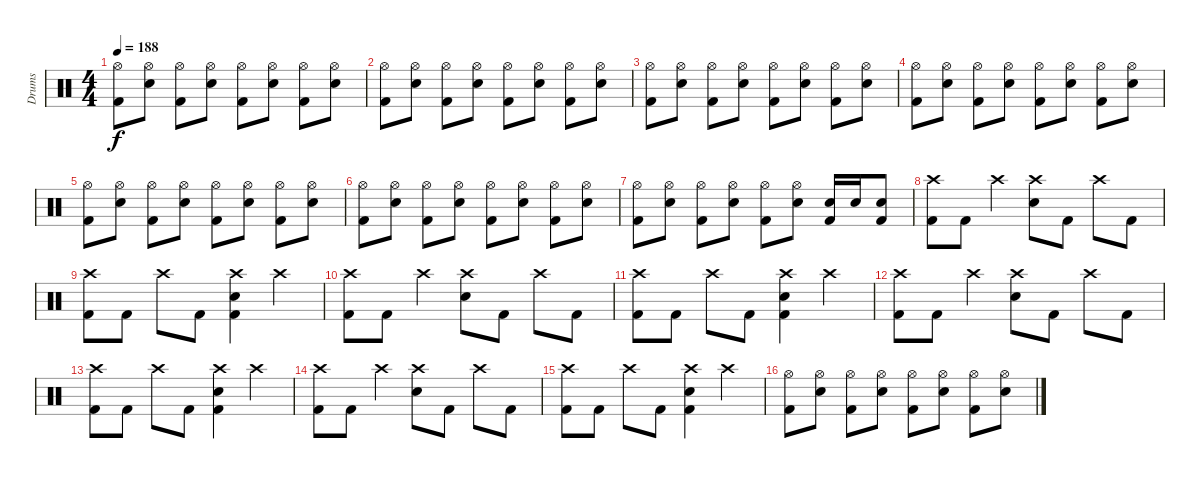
\track ("Drums" "Drums") {instrument percussion}
\staff {score}
\articulation defaults
\ts (4 4)
\tempo 188
\clef neutral
\ks c
("Hi-Hat (open)" "Kick (hit) 2").8{dy f} ("Hi-Hat (open)" "Snare (hit) 2").8 ("Hi-Hat (open)" "Kick (hit) 2").8 ("Hi-Hat (open)" "Snare (hit) 2").8 ("Hi-Hat (open)" "Kick (hit) 2").8 ("Hi-Hat (open)" "Snare (hit) 2").8 ("Hi-Hat (open)" "Kick (hit) 2").8 ("Hi-Hat (open)" "Snare (hit) 2").8 |
("Hi-Hat (open)" "Kick (hit) 2").8 ("Hi-Hat (open)" "Snare (hit) 2").8 ("Hi-Hat (open)" "Kick (hit) 2").8 ("Hi-Hat (open)" "Snare (hit) 2").8 ("Hi-Hat (open)" "Kick (hit) 2").8 ("Hi-Hat (open)" "Snare (hit) 2").8 ("Hi-Hat (open)" "Kick (hit) 2").8 ("Hi-Hat (open)" "Snare (hit) 2").8 |
("Hi-Hat (open)" "Kick (hit) 2").8 ("Hi-Hat (open)" "Snare (hit) 2").8 ("Hi-Hat (open)" "Kick (hit) 2").8 ("Hi-Hat (open)" "Snare (hit) 2").8 ("Hi-Hat (open)" "Kick (hit) 2").8 ("Hi-Hat (open)" "Snare (hit) 2").8 ("Hi-Hat (open)" "Kick (hit) 2").8 ("Hi-Hat (open)" "Snare (hit) 2").8 |
("Hi-Hat (open)" "Kick (hit) 2").8 ("Hi-Hat (open)" "Snare (hit) 2").8 ("Hi-Hat (open)" "Kick (hit) 2").8 ("Hi-Hat (open)" "Snare (hit) 2").8 ("Hi-Hat (open)" "Kick (hit) 2").8 ("Hi-Hat (open)" "Snare (hit) 2").8 ("Hi-Hat (open)" "Kick (hit) 2").8 ("Hi-Hat (open)" "Snare (hit) 2").8 |
("Hi-Hat (open)" "Kick (hit) 2").8 ("Hi-Hat (open)" "Snare (hit) 2").8 ("Hi-Hat (open)" "Kick (hit) 2").8 ("Hi-Hat (open)" "Snare (hit) 2").8 ("Hi-Hat (open)" "Kick (hit) 2").8 ("Hi-Hat (open)" "Snare (hit) 2").8 ("Hi-Hat (open)" "Kick (hit) 2").8 ("Hi-Hat (open)" "Snare (hit) 2").8 |
("Hi-Hat (open)" "Kick (hit) 2").8 ("Hi-Hat (open)" "Snare (hit) 2").8 ("Hi-Hat (open)" "Kick (hit) 2").8 ("Hi-Hat (open)" "Snare (hit) 2").8 ("Hi-Hat (open)" "Kick (hit) 2").8 ("Hi-Hat (open)" "Snare (hit) 2").8 ("Hi-Hat (open)" "Kick (hit) 2").8 ("Hi-Hat (open)" "Snare (hit) 2").8 |
("Hi-Hat (open)" "Kick (hit) 2").8 ("Hi-Hat (open)" "Snare (hit) 2").8 ("Hi-Hat (open)" "Kick (hit) 2").8 ("Hi-Hat (open)" "Snare (hit) 2").8 ("Hi-Hat (open)" "Kick (hit) 2").8 ("Hi-Hat (open)" "Snare (hit) 2").8 ("Snare (hit) 2" "Kick (hit) 2").16 "Snare (hit) 2".16 ("Snare (hit) 2" "Kick (hit) 2").8 |
("Crash high (hit)" "Kick (hit) 2").8 "Kick (hit) 2".8 "Crash high (hit)".4 ("Crash high (hit)" "Snare (hit) 2").8 "Kick (hit) 2".8 "Crash high (hit)".8 "Kick (hit) 2".8 |
("Crash high (hit)" "Kick (hit) 2").8 "Kick (hit) 2".8 "Crash high (hit)".8 "Kick (hit) 2".8 ("Crash high (hit)" "Snare (hit) 2" "Kick (hit) 2").4 "Crash high (hit)".4 |
("Crash high (hit)" "Kick (hit) 2").8 "Kick (hit) 2".8 "Crash high (hit)".4 ("Crash high (hit)" "Snare (hit) 2").8 "Kick (hit) 2".8 "Crash high (hit)".8 "Kick (hit) 2".8 |
("Crash high (hit)" "Kick (hit) 2").8 "Kick (hit) 2".8 "Crash high (hit)".8 "Kick (hit) 2".8 ("Crash high (hit)" "Snare (hit) 2" "Kick (hit) 2").4 "Crash high (hit)".4 |
("Crash high (hit)" "Kick (hit) 2").8 "Kick (hit) 2".8 "Crash high (hit)".4 ("Crash high (hit)" "Snare (hit) 2").8 "Kick (hit) 2".8 "Crash high (hit)".8 "Kick (hit) 2".8 |
("Crash high (hit)" "Kick (hit) 2").8 "Kick (hit) 2".8 "Crash high (hit)".8 "Kick (hit) 2".8 ("Crash high (hit)" "Snare (hit) 2" "Kick (hit) 2").4 "Crash high (hit)".4 |
("Crash high (hit)" "Kick (hit) 2").8 "Kick (hit) 2".8 "Crash high (hit)".4 ("Crash high (hit)" "Snare (hit) 2").8 "Kick (hit) 2".8 "Crash high (hit)".8 "Kick (hit) 2".8 |
("Crash high (hit)" "Kick (hit) 2").8 "Kick (hit) 2".8 "Crash high (hit)".8 "Kick (hit) 2".8 ("Crash high (hit)" "Snare (hit) 2" "Kick (hit) 2").4 "Crash high (hit)".4 |
("Hi-Hat (open)" "Kick (hit) 2").8 ("Hi-Hat (open)" "Snare (hit) 2").8 ("Hi-Hat (open)" "Kick (hit) 2").8 ("Hi-Hat (open)" "Snare (hit) 2").8 ("Hi-Hat (open)" "Kick (hit) 2").8 ("Hi-Hat (open)" "Snare (hit) 2").8 ("Hi-Hat (open)" "Kick (hit) 2").8 ("Hi-Hat (open)" "Snare (hit) 2").8
